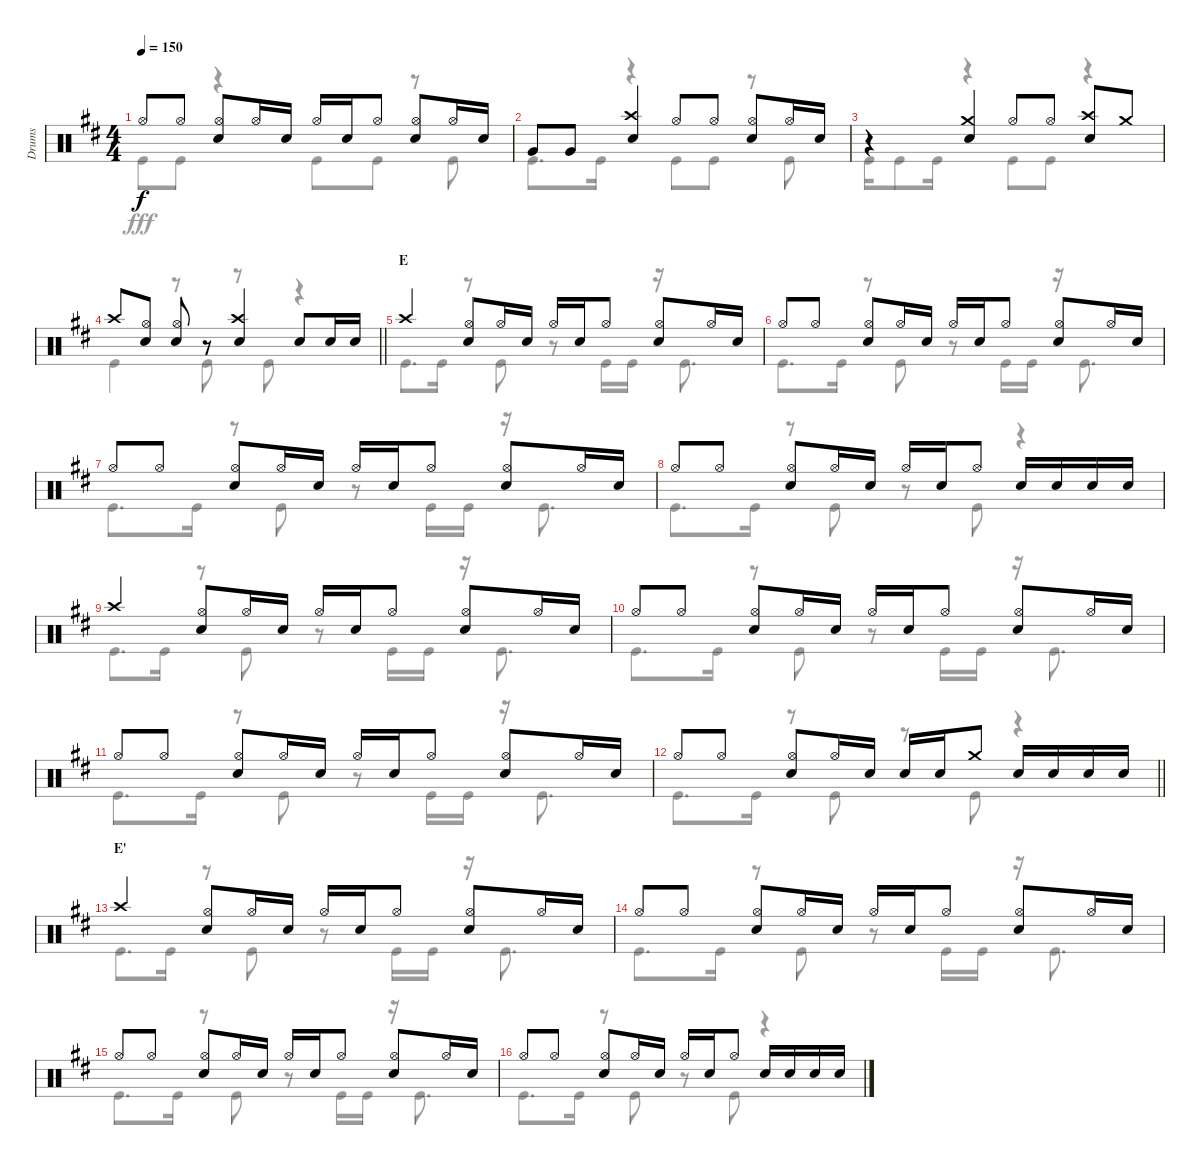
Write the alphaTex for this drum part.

\track ("Drums" "Drums") {instrument percussion}
\staff {score}
\articulation defaults
\voice
\ts (4 4)
\tempo 150
\clef neutral
\ks d "Hi-Hat (open)".8{dy f} "Hi-Hat (open)".8
("Hi-Hat (open)" "Snare (hit) 2").8 "Hi-Hat (open)".16 "Snare (hit) 2".16 "Hi-Hat (open)".16 "Snare (hit) 2".16 "Hi-Hat (open)".8 ("Hi-Hat (open)" "Snare (hit) 2").8 "Hi-Hat (open)".16 "Snare (hit) 2".16 |
"Very Low Tom (hit)".8 "Very Low Tom (hit)".8 ("Crash high (hit)" "Snare (hit) 2").4 "Hi-Hat (open)".8 "Hi-Hat (open)".8 ("Hi-Hat (open)" "Snare (hit) 2").8 "Hi-Hat (open)".16 "Snare (hit) 2".16 |
r.4 ("Crash medium (hit)" "Snare (hit) 2").4 "Hi-Hat (open)".8 "Hi-Hat (open)".8 ("Crash high (hit)" "Snare (hit) 2").8 "Crash medium (hit)".8 |
\barLineRight lightlight "Crash high (hit)".8
("Hi-Hat (open)" "Snare (hit) 2").8 ("Hi-Hat (open)" "Snare (hit) 2").8 r.8 ("Crash high (hit)" "Snare (hit) 2").4 "Snare (hit) 2".8 "Snare (hit) 2".16 "Snare (hit) 2".16 |
\section ("" "E")
"Crash high (hit)".4 ("Hi-Hat (open)" "Snare (hit) 2").8 "Hi-Hat (open)".16 "Snare (hit) 2".16 "Hi-Hat (open)".16 "Snare (hit) 2".16 "Hi-Hat (open)".8 ("Hi-Hat (open)" "Snare (hit) 2").8 "Hi-Hat (open)".16 "Snare (hit) 2".16 |
"Hi-Hat (open)".8 "Hi-Hat (open)".8 ("Hi-Hat (open)" "Snare (hit) 2").8 "Hi-Hat (open)".16 "Snare (hit) 2".16 "Hi-Hat (open)".16 "Snare (hit) 2".16 "Hi-Hat (open)".8 ("Hi-Hat (open)" "Snare (hit) 2").8 "Hi-Hat (open)".16 "Snare (hit) 2".16 |
"Hi-Hat (open)".8 "Hi-Hat (open)".8 ("Hi-Hat (open)" "Snare (hit) 2").8 "Hi-Hat (open)".16 "Snare (hit) 2".16 "Hi-Hat (open)".16 "Snare (hit) 2".16 "Hi-Hat (open)".8 ("Hi-Hat (open)" "Snare (hit) 2").8 "Hi-Hat (open)".16 "Snare (hit) 2".16 |
"Hi-Hat (open)".8 "Hi-Hat (open)".8 ("Hi-Hat (open)" "Snare (hit) 2").8 "Hi-Hat (open)".16 "Snare (hit) 2".16 "Hi-Hat (open)".16 "Snare (hit) 2".16 "Hi-Hat (open)".8 "Snare (hit) 2".16 "Snare (hit) 2".16 "Snare (hit) 2".16 "Snare (hit) 2".16 |
"Crash high (hit)".4 ("Hi-Hat (open)" "Snare (hit) 2").8 "Hi-Hat (open)".16 "Snare (hit) 2".16 "Hi-Hat (open)".16 "Snare (hit) 2".16 "Hi-Hat (open)".8 ("Hi-Hat (open)" "Snare (hit) 2").8 "Hi-Hat (open)".16 "Snare (hit) 2".16 |
"Hi-Hat (open)".8 "Hi-Hat (open)".8 ("Hi-Hat (open)" "Snare (hit) 2").8 "Hi-Hat (open)".16 "Snare (hit) 2".16 "Hi-Hat (open)".16 "Snare (hit) 2".16 "Hi-Hat (open)".8 ("Hi-Hat (open)" "Snare (hit) 2").8 "Hi-Hat (open)".16 "Snare (hit) 2".16 |
"Hi-Hat (open)".8 "Hi-Hat (open)".8 ("Hi-Hat (open)" "Snare (hit) 2").8 "Hi-Hat (open)".16 "Snare (hit) 2".16 "Hi-Hat (open)".16 "Snare (hit) 2".16 "Hi-Hat (open)".8 ("Hi-Hat (open)" "Snare (hit) 2").8 "Hi-Hat (open)".16 "Snare (hit) 2".16 |
\barLineRight lightlight "Hi-Hat (open)".8 "Hi-Hat (open)".8
("Hi-Hat (open)" "Snare (hit) 2").8 "Hi-Hat (open)".16 "Snare (hit) 2".16 "Snare (hit) 2".16 "Snare (hit) 2".16 "Crash medium (hit)".8 "Snare (hit) 2".16 "Snare (hit) 2".16 "Snare (hit) 2".16 "Snare (hit) 2".16 |
\section ("" "E'")
"Crash high (hit)".4 ("Hi-Hat (open)" "Snare (hit) 2").8 "Hi-Hat (open)".16 "Snare (hit) 2".16 "Hi-Hat (open)".16 "Snare (hit) 2".16 "Hi-Hat (open)".8 ("Hi-Hat (open)" "Snare (hit) 2").8 "Hi-Hat (open)".16 "Snare (hit) 2".16 |
"Hi-Hat (open)".8 "Hi-Hat (open)".8 ("Hi-Hat (open)" "Snare (hit) 2").8 "Hi-Hat (open)".16 "Snare (hit) 2".16 "Hi-Hat (open)".16 "Snare (hit) 2".16 "Hi-Hat (open)".8 ("Hi-Hat (open)" "Snare (hit) 2").8 "Hi-Hat (open)".16 "Snare (hit) 2".16 |
"Hi-Hat (open)".8 "Hi-Hat (open)".8 ("Hi-Hat (open)" "Snare (hit) 2").8 "Hi-Hat (open)".16 "Snare (hit) 2".16 "Hi-Hat (open)".16 "Snare (hit) 2".16 "Hi-Hat (open)".8 ("Hi-Hat (open)" "Snare (hit) 2").8 "Hi-Hat (open)".16 "Snare (hit) 2".16 |
"Hi-Hat (open)".8 "Hi-Hat (open)".8 ("Hi-Hat (open)" "Snare (hit) 2").8 "Hi-Hat (open)".16 "Snare (hit) 2".16 "Hi-Hat (open)".16 "Snare (hit) 2".16 "Hi-Hat (open)".8 "Snare (hit) 2".16 "Snare (hit) 2".16 "Snare (hit) 2".16 "Snare (hit) 2".16
\voice
\clef neutral
\ottava regular
\simile none
\ks d "Kick (hit)".8{dy fff} "Kick (hit)".8
r.4 "Kick (hit)".8 "Kick (hit)".8 r.8 "Kick (hit)".8 |
"Kick (hit)".8{d} "Kick (hit)".16 r.4 "Kick (hit)".8 "Kick (hit)".8 r.8 "Kick (hit)".8 |
"Kick (hit)".16 "Kick (hit)".8 "Kick (hit)".16 r.4 "Kick (hit)".8 "Kick (hit)".8 r.4 |
\barLineRight lightlight "Kick (hit)".4
r.8 "Kick (hit)".8 r.8 "Kick (hit)".8 r.4 |
"Kick (hit)".8{d} "Kick (hit)".16 r.8 "Kick (hit)".8 r.8 "Kick (hit)".16 "Kick (hit)".16 r.16 "Kick (hit)".8{d} |
"Kick (hit)".8{d} "Kick (hit)".16 r.8 "Kick (hit)".8 r.8 "Kick (hit)".16 "Kick (hit)".16 r.16 "Kick (hit)".8{d} |
"Kick (hit)".8{d} "Kick (hit)".16 r.8 "Kick (hit)".8 r.8 "Kick (hit)".16 "Kick (hit)".16 r.16 "Kick (hit)".8{d} |
"Kick (hit)".8{d} "Kick (hit)".16 r.8 "Kick (hit)".8 r.8 "Kick (hit)".8 r.4 |
"Kick (hit)".8{d} "Kick (hit)".16 r.8 "Kick (hit)".8 r.8 "Kick (hit)".16 "Kick (hit)".16 r.16 "Kick (hit)".8{d} |
"Kick (hit)".8{d} "Kick (hit)".16 r.8 "Kick (hit)".8 r.8 "Kick (hit)".16 "Kick (hit)".16 r.16 "Kick (hit)".8{d} |
"Kick (hit)".8{d} "Kick (hit)".16 r.8 "Kick (hit)".8 r.8 "Kick (hit)".16 "Kick (hit)".16 r.16 "Kick (hit)".8{d} |
\barLineRight lightlight "Kick (hit)".8{d} "Kick (hit)".16
r.8 "Kick (hit)".8 r.8 "Kick (hit)".8 r.4 |
"Kick (hit)".8{d} "Kick (hit)".16 r.8 "Kick (hit)".8 r.8 "Kick (hit)".16 "Kick (hit)".16 r.16 "Kick (hit)".8{d} |
"Kick (hit)".8{d} "Kick (hit)".16 r.8 "Kick (hit)".8 r.8 "Kick (hit)".16 "Kick (hit)".16 r.16 "Kick (hit)".8{d} |
"Kick (hit)".8{d} "Kick (hit)".16 r.8 "Kick (hit)".8 r.8 "Kick (hit)".16 "Kick (hit)".16 r.16 "Kick (hit)".8{d} |
"Kick (hit)".8{d} "Kick (hit)".16 r.8 "Kick (hit)".8 r.8 "Kick (hit)".8 r.4
